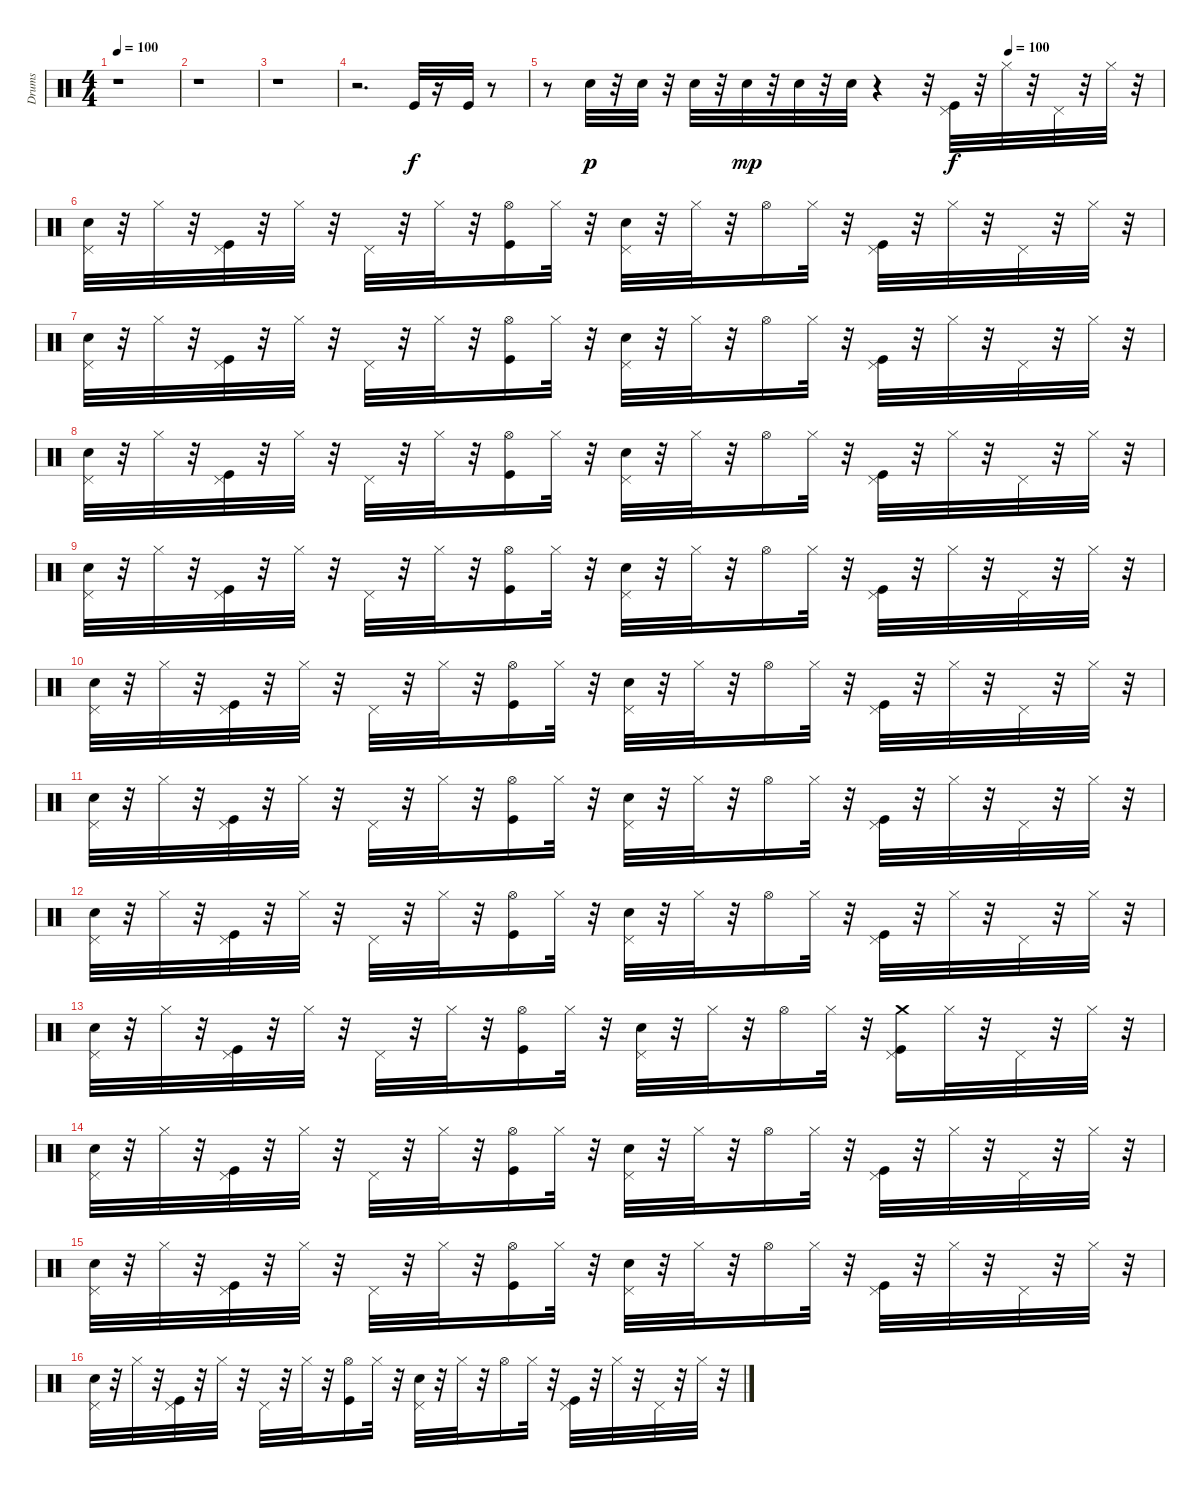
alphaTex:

\track ("Drums" "Drums") {instrument percussion}
\staff {score}
\articulation defaults
\ts (4 4)
\tempo 100
\clef neutral
\ks c
r.1{dy f} |
r.1 |
r.1 |
r.2{d} "Kick (hit)".32 r.16 "Kick (hit)".32 r.8 |
\tempo (100 0.75)
r.8 "Snare (hit) 2".32{dy p} r.32 "Snare (hit) 2".32 r.32 "Snare (hit) 2".32 r.32 "Snare (hit) 2".32{dy mp} r.32 "Snare (hit) 2".32 r.32 "Snare (hit) 2".32 r.4 r.32 ("Kick (hit)" "Pedal Hi-Hat (hit)").32{dy f} r.32 "Hi-Hat (closed)".32 r.32 "Pedal Hi-Hat (hit)".32 r.32 "Hi-Hat (closed)".32 r.32 |
("Pedal Hi-Hat (hit)" "Metronome (bell)").32 r.32 "Hi-Hat (closed)".32 r.32 ("Pedal Hi-Hat (hit)" "Kick (hit)").32 r.32 "Hi-Hat (closed)".32 r.32 "Pedal Hi-Hat (hit)".32 r.32 "Hi-Hat (closed)".32 r.32 ("Kick (hit)" "Hi-Hat (open)").16 "Hi-Hat (closed)".32 r.32 ("Pedal Hi-Hat (hit)" "Metronome (bell)").32 r.32 "Hi-Hat (closed)".32 r.32 "Hi-Hat (open)".16 "Hi-Hat (closed)".32 r.32 ("Pedal Hi-Hat (hit)" "Kick (hit)").32 r.32 "Hi-Hat (closed)".32 r.32 "Pedal Hi-Hat (hit)".32 r.32 "Hi-Hat (closed)".32 r.32 |
("Pedal Hi-Hat (hit)" "Metronome (bell)").32 r.32 "Hi-Hat (closed)".32 r.32 ("Pedal Hi-Hat (hit)" "Kick (hit)").32 r.32 "Hi-Hat (closed)".32 r.32 "Pedal Hi-Hat (hit)".32 r.32 "Hi-Hat (closed)".32 r.32 ("Hi-Hat (open)" "Kick (hit)").16 "Hi-Hat (closed)".32 r.32 ("Pedal Hi-Hat (hit)" "Metronome (bell)").32 r.32 "Hi-Hat (closed)".32 r.32 "Hi-Hat (open)".16 "Hi-Hat (closed)".32 r.32 ("Kick (hit)" "Pedal Hi-Hat (hit)").32 r.32 "Hi-Hat (closed)".32 r.32 "Pedal Hi-Hat (hit)".32 r.32 "Hi-Hat (closed)".32 r.32 |
("Pedal Hi-Hat (hit)" "Metronome (bell)").32 r.32 "Hi-Hat (closed)".32 r.32 ("Pedal Hi-Hat (hit)" "Kick (hit)").32 r.32 "Hi-Hat (closed)".32 r.32 "Pedal Hi-Hat (hit)".32 r.32 "Hi-Hat (closed)".32 r.32 ("Hi-Hat (open)" "Kick (hit)").16 "Hi-Hat (closed)".32 r.32 ("Metronome (bell)" "Pedal Hi-Hat (hit)").32 r.32 "Hi-Hat (closed)".32 r.32 "Hi-Hat (open)".16 "Hi-Hat (closed)".32 r.32 ("Kick (hit)" "Pedal Hi-Hat (hit)").32 r.32 "Hi-Hat (closed)".32 r.32 "Pedal Hi-Hat (hit)".32 r.32 "Hi-Hat (closed)".32 r.32 |
("Pedal Hi-Hat (hit)" "Metronome (bell)").32 r.32 "Hi-Hat (closed)".32 r.32 ("Kick (hit)" "Pedal Hi-Hat (hit)").32 r.32 "Hi-Hat (closed)".32 r.32 "Pedal Hi-Hat (hit)".32 r.32 "Hi-Hat (closed)".32 r.32 ("Kick (hit)" "Hi-Hat (open)").16 "Hi-Hat (closed)".32 r.32 ("Metronome (bell)" "Pedal Hi-Hat (hit)").32 r.32 "Hi-Hat (closed)".32 r.32 "Hi-Hat (open)".16 "Hi-Hat (closed)".32 r.32 ("Kick (hit)" "Pedal Hi-Hat (hit)").32 r.32 "Hi-Hat (closed)".32 r.32 "Pedal Hi-Hat (hit)".32 r.32 "Hi-Hat (closed)".32 r.32 |
("Metronome (bell)" "Pedal Hi-Hat (hit)").32 r.32 "Hi-Hat (closed)".32 r.32 ("Kick (hit)" "Pedal Hi-Hat (hit)").32 r.32 "Hi-Hat (closed)".32 r.32 "Pedal Hi-Hat (hit)".32 r.32 "Hi-Hat (closed)".32 r.32 ("Hi-Hat (open)" "Kick (hit)").16 "Hi-Hat (closed)".32 r.32 ("Pedal Hi-Hat (hit)" "Metronome (bell)").32 r.32 "Hi-Hat (closed)".32 r.32 "Hi-Hat (open)".16 "Hi-Hat (closed)".32 r.32 ("Kick (hit)" "Pedal Hi-Hat (hit)").32 r.32 "Hi-Hat (closed)".32 r.32 "Pedal Hi-Hat (hit)".32 r.32 "Hi-Hat (closed)".32 r.32 |
("Pedal Hi-Hat (hit)" "Metronome (bell)").32 r.32 "Hi-Hat (closed)".32 r.32 ("Kick (hit)" "Pedal Hi-Hat (hit)").32 r.32 "Hi-Hat (closed)".32 r.32 "Pedal Hi-Hat (hit)".32 r.32 "Hi-Hat (closed)".32 r.32 ("Kick (hit)" "Hi-Hat (open)").16 "Hi-Hat (closed)".32 r.32 ("Pedal Hi-Hat (hit)" "Metronome (bell)").32 r.32 "Hi-Hat (closed)".32 r.32 "Hi-Hat (open)".16 "Hi-Hat (closed)".32 r.32 ("Kick (hit)" "Pedal Hi-Hat (hit)").32 r.32 "Hi-Hat (closed)".32 r.32 "Pedal Hi-Hat (hit)".32 r.32 "Hi-Hat (closed)".32 r.32 |
("Pedal Hi-Hat (hit)" "Metronome (bell)").32 r.32 "Hi-Hat (closed)".32 r.32 ("Kick (hit)" "Pedal Hi-Hat (hit)").32 r.32 "Hi-Hat (closed)".32 r.32 "Pedal Hi-Hat (hit)".32 r.32 "Hi-Hat (closed)".32 r.32 ("Hi-Hat (open)" "Kick (hit)").16 "Hi-Hat (closed)".32 r.32 ("Pedal Hi-Hat (hit)" "Metronome (bell)").32 r.32 "Hi-Hat (closed)".32 r.32 "Hi-Hat (open)".16 "Hi-Hat (closed)".32 r.32 ("Pedal Hi-Hat (hit)" "Kick (hit)").32 r.32 "Hi-Hat (closed)".32 r.32 "Pedal Hi-Hat (hit)".32 r.32 "Hi-Hat (closed)".32 r.32 |
("Metronome (bell)" "Pedal Hi-Hat (hit)").32 r.32 "Hi-Hat (closed)".32 r.32 ("Pedal Hi-Hat (hit)" "Kick (hit)").32 r.32 "Hi-Hat (closed)".32 r.32 "Pedal Hi-Hat (hit)".32 r.32 "Hi-Hat (closed)".32 r.32 ("Hi-Hat (open)" "Kick (hit)").16 "Hi-Hat (closed)".32 r.32 ("Pedal Hi-Hat (hit)" "Metronome (bell)").32 r.32 "Hi-Hat (closed)".32 r.32 "Hi-Hat (open)".16 "Hi-Hat (closed)".32 r.32 ("Kick (hit)" "Pedal Hi-Hat (hit)" "Crash medium (hit)").16 "Hi-Hat (closed)".32 r.32 "Pedal Hi-Hat (hit)".32 r.32 "Hi-Hat (closed)".32 r.32 |
("Pedal Hi-Hat (hit)" "Metronome (bell)").32 r.32 "Hi-Hat (closed)".32 r.32 ("Pedal Hi-Hat (hit)" "Kick (hit)").32 r.32 "Hi-Hat (closed)".32 r.32 "Pedal Hi-Hat (hit)".32 r.32 "Hi-Hat (closed)".32 r.32 ("Hi-Hat (open)" "Kick (hit)").16 "Hi-Hat (closed)".32 r.32 ("Pedal Hi-Hat (hit)" "Metronome (bell)").32 r.32 "Hi-Hat (closed)".32 r.32 "Hi-Hat (open)".16 "Hi-Hat (closed)".32 r.32 ("Pedal Hi-Hat (hit)" "Kick (hit)").32 r.32 "Hi-Hat (closed)".32 r.32 "Pedal Hi-Hat (hit)".32 r.32 "Hi-Hat (closed)".32 r.32 |
("Metronome (bell)" "Pedal Hi-Hat (hit)").32 r.32 "Hi-Hat (closed)".32 r.32 ("Pedal Hi-Hat (hit)" "Kick (hit)").32 r.32 "Hi-Hat (closed)".32 r.32 "Pedal Hi-Hat (hit)".32 r.32 "Hi-Hat (closed)".32 r.32 ("Hi-Hat (open)" "Kick (hit)").16 "Hi-Hat (closed)".32 r.32 ("Pedal Hi-Hat (hit)" "Metronome (bell)").32 r.32 "Hi-Hat (closed)".32 r.32 "Hi-Hat (open)".16 "Hi-Hat (closed)".32 r.32 ("Kick (hit)" "Pedal Hi-Hat (hit)").32 r.32 "Hi-Hat (closed)".32 r.32 "Pedal Hi-Hat (hit)".32 r.32 "Hi-Hat (closed)".32 r.32 |
("Pedal Hi-Hat (hit)" "Metronome (bell)").32 r.32 "Hi-Hat (closed)".32 r.32 ("Kick (hit)" "Pedal Hi-Hat (hit)").32 r.32 "Hi-Hat (closed)".32 r.32 "Pedal Hi-Hat (hit)".32 r.32 "Hi-Hat (closed)".32 r.32 ("Hi-Hat (open)" "Kick (hit)").16 "Hi-Hat (closed)".32 r.32 ("Pedal Hi-Hat (hit)" "Metronome (bell)").32 r.32 "Hi-Hat (closed)".32 r.32 "Hi-Hat (open)".16 "Hi-Hat (closed)".32 r.32 ("Pedal Hi-Hat (hit)" "Kick (hit)").32 r.32 "Hi-Hat (closed)".32 r.32 "Pedal Hi-Hat (hit)".32 r.32 "Hi-Hat (closed)".32 r.32
